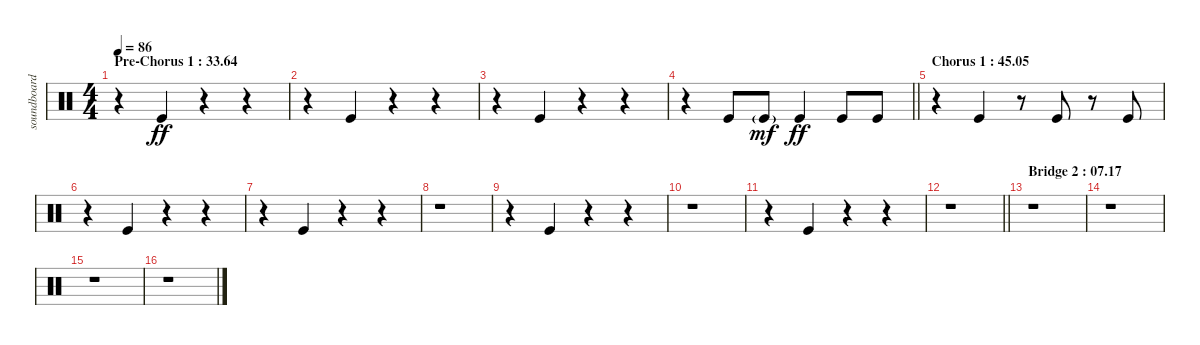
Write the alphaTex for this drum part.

\track ("soundboard" "soundboard") {instrument percussion}
\staff {score}
\articulation defaults
\ts (4 4)
\section ("" "Pre-Chorus 1 : 33.64")
\tempo 86
\clef neutral
\ks aminor
r.4{dy ff} "Kick (hit)".4 r.4 r.4 |
r.4 "Kick (hit)".4 r.4 r.4 |
r.4 "Kick (hit)".4 r.4 r.4 |
\barLineRight lightlight
r.4 "Kick (hit)".8 "Kick (hit)"{g}.8{dy mf} "Kick (hit)".4{dy ff} "Kick (hit)".8 "Kick (hit)".8 |
\section ("" "Chorus 1 : 45.05")
r.4 "Kick (hit)".4 r.8 "Kick (hit)".8 r.8 "Kick (hit)".8 |
r.4 "Kick (hit)".4 r.4 r.4 |
r.4 "Kick (hit)".4 r.4 r.4 |
r.1 |
r.4 "Kick (hit)".4 r.4 r.4 |
r.1 |
r.4 "Kick (hit)".4 r.4 r.4 |
\barLineRight lightlight
r.1 |
\section ("" "Bridge 2 : 07.17")
r.1 |
r.1 |
r.1 |
r.1
